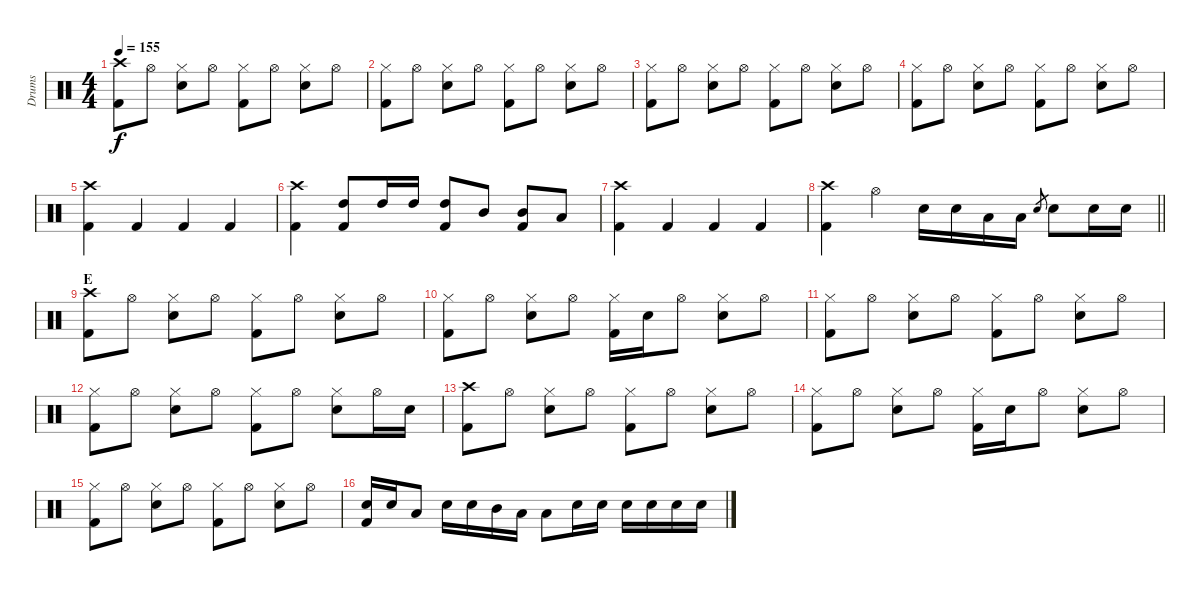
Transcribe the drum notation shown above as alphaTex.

\track ("Drums" "Drums") {instrument percussion}
\staff {score}
\articulation defaults
\ts (4 4)
\tempo 155
\clef neutral
\ks c
("Crash high (hit)" "Kick (hit) 2").8{dy f} "Hi-Hat (open)".8 ("Hi-Hat (closed)" "Snare (hit) 2").8 "Hi-Hat (open)".8 ("Hi-Hat (closed)" "Kick (hit) 2").8 "Hi-Hat (open)".8 ("Hi-Hat (closed)" "Snare (hit) 2").8 "Hi-Hat (open)".8 |
("Hi-Hat (closed)" "Kick (hit) 2").8 "Hi-Hat (open)".8 ("Hi-Hat (closed)" "Snare (hit) 2").8 "Hi-Hat (open)".8 ("Hi-Hat (closed)" "Kick (hit) 2").8 "Hi-Hat (open)".8 ("Hi-Hat (closed)" "Snare (hit) 2").8 "Hi-Hat (open)".8 |
("Hi-Hat (closed)" "Kick (hit) 2").8 "Hi-Hat (open)".8 ("Hi-Hat (closed)" "Snare (hit) 2").8 "Hi-Hat (open)".8 ("Hi-Hat (closed)" "Kick (hit) 2").8 "Hi-Hat (open)".8 ("Hi-Hat (closed)" "Snare (hit) 2").8 "Hi-Hat (open)".8 |
("Hi-Hat (closed)" "Kick (hit) 2").8 "Hi-Hat (open)".8 ("Hi-Hat (closed)" "Snare (hit) 2").8 "Hi-Hat (open)".8 ("Hi-Hat (closed)" "Kick (hit) 2").8 "Hi-Hat (open)".8 ("Hi-Hat (closed)" "Snare (hit) 2").8 "Hi-Hat (open)".8 |
("Crash high (hit)" "Kick (hit) 2").4 "Kick (hit) 2".4 "Kick (hit) 2".4 "Kick (hit) 2".4 |
("Crash high (hit)" "Kick (hit) 2").4 ("High Tom (hit)" "Kick (hit) 2").8 "High Tom (hit)".16 "High Tom (hit)".16 ("High Tom (hit)" "Kick (hit) 2").8 "Mid Tom (hit)".8 ("Mid Tom (hit)" "Kick (hit) 2").8 "Low Tom (hit)".8 |
("Crash high (hit)" "Kick (hit) 2").4 "Kick (hit) 2".4 "Kick (hit) 2".4 "Kick (hit) 2".4 |
\barLineRight lightlight
("Crash high (hit)" "Kick (hit) 2").4 "Hi-Hat (open)".4 "Snare (hit) 2".16 "Snare (hit) 2".16 "Low Tom (hit)".16 "Low Tom (hit)".16 "Snare (hit) 2".8{gr} "Snare (hit) 2".8 "Snare (hit) 2".16 "Snare (hit) 2".16 |
\section ("" "E")
("Crash high (hit)" "Kick (hit) 2").8 "Hi-Hat (open)".8 ("Hi-Hat (closed)" "Snare (hit) 2").8 "Hi-Hat (open)".8 ("Hi-Hat (closed)" "Kick (hit) 2").8 "Hi-Hat (open)".8 ("Hi-Hat (closed)" "Snare (hit) 2").8 "Hi-Hat (open)".8 |
("Hi-Hat (closed)" "Kick (hit) 2").8 "Hi-Hat (open)".8 ("Hi-Hat (closed)" "Snare (hit) 2").8 "Hi-Hat (open)".8 ("Hi-Hat (closed)" "Kick (hit) 2").16 "Snare (hit) 2".16 "Hi-Hat (open)".8 ("Hi-Hat (closed)" "Snare (hit) 2").8 "Hi-Hat (open)".8 |
("Hi-Hat (closed)" "Kick (hit) 2").8 "Hi-Hat (open)".8 ("Hi-Hat (closed)" "Snare (hit) 2").8 "Hi-Hat (open)".8 ("Hi-Hat (closed)" "Kick (hit) 2").8 "Hi-Hat (open)".8 ("Hi-Hat (closed)" "Snare (hit) 2").8 "Hi-Hat (open)".8 |
("Hi-Hat (closed)" "Kick (hit) 2").8 "Hi-Hat (open)".8 ("Hi-Hat (closed)" "Snare (hit) 2").8 "Hi-Hat (open)".8 ("Hi-Hat (closed)" "Kick (hit) 2").8 "Hi-Hat (open)".8 ("Hi-Hat (closed)" "Snare (hit) 2").8 "Hi-Hat (open)".16 "Snare (hit) 2".16 |
("Crash high (hit)" "Kick (hit) 2").8 "Hi-Hat (open)".8 ("Hi-Hat (closed)" "Snare (hit) 2").8 "Hi-Hat (open)".8 ("Hi-Hat (closed)" "Kick (hit) 2").8 "Hi-Hat (open)".8 ("Hi-Hat (closed)" "Snare (hit) 2").8 "Hi-Hat (open)".8 |
("Hi-Hat (closed)" "Kick (hit) 2").8 "Hi-Hat (open)".8 ("Hi-Hat (closed)" "Snare (hit) 2").8 "Hi-Hat (open)".8 ("Hi-Hat (closed)" "Kick (hit) 2").16 "Snare (hit) 2".16 "Hi-Hat (open)".8 ("Hi-Hat (closed)" "Snare (hit) 2").8 "Hi-Hat (open)".8 |
("Hi-Hat (closed)" "Kick (hit) 2").8 "Hi-Hat (open)".8 ("Hi-Hat (closed)" "Snare (hit) 2").8 "Hi-Hat (open)".8 ("Hi-Hat (closed)" "Kick (hit) 2").8 "Hi-Hat (open)".8 ("Hi-Hat (closed)" "Snare (hit) 2").8 "Hi-Hat (open)".8 |
("Snare (hit) 2" "Kick (hit) 2").16 "Snare (hit) 2".16 "Low Tom (hit)".8 "Snare (hit) 2".16 "Snare (hit) 2".16 "Mid Tom (hit)".16 "Low Tom (hit)".16 "Low Tom (hit)".8 "Snare (hit) 2".16 "Snare (hit) 2".16 "Snare (hit) 2".16 "Snare (hit) 2".16 "Snare (hit) 2".16 "Snare (hit) 2".16
